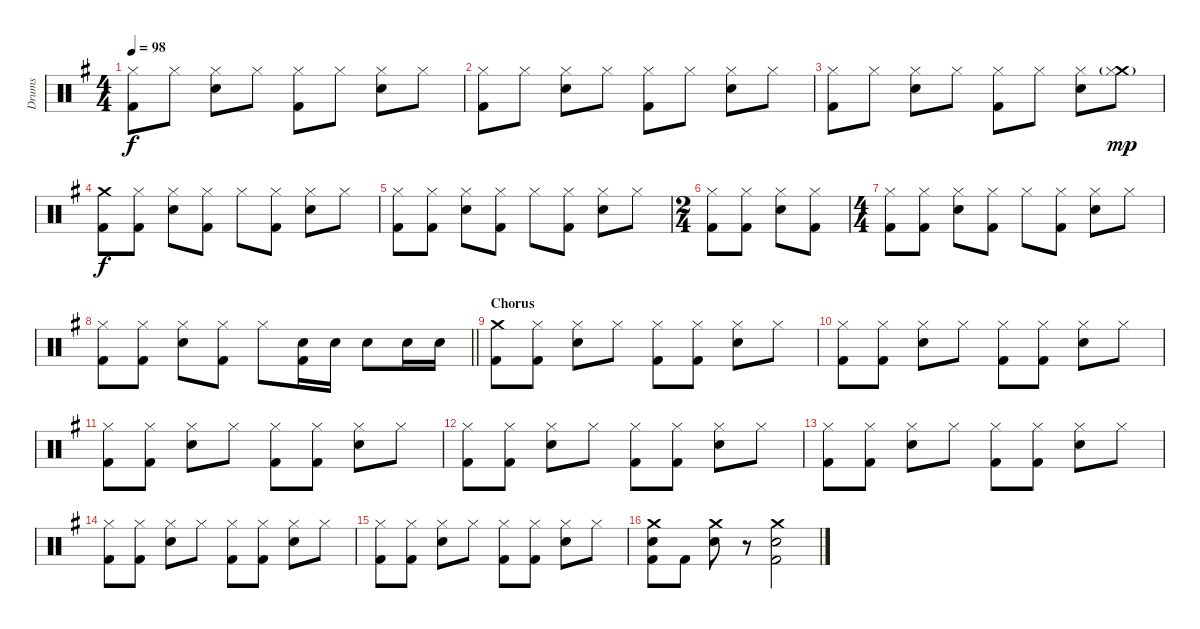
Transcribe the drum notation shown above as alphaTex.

\track ("Drums" "Drums") {instrument percussion}
\staff {score}
\articulation defaults
\ts (4 4)
\tempo 98
\clef neutral
\ks g
("Hi-Hat (closed)" "Kick (hit) 2").8{dy f} "Hi-Hat (closed)".8 ("Hi-Hat (closed)" "Electric Snare (hit)").8 "Hi-Hat (closed)".8 ("Hi-Hat (closed)" "Kick (hit) 2").8 "Hi-Hat (closed)".8 ("Hi-Hat (closed)" "Electric Snare (hit)").8 "Hi-Hat (closed)".8 |
("Hi-Hat (closed)" "Kick (hit) 2").8 "Hi-Hat (closed)".8 ("Hi-Hat (closed)" "Electric Snare (hit)").8 "Hi-Hat (closed)".8 ("Hi-Hat (closed)" "Kick (hit) 2").8 "Hi-Hat (closed)".8 ("Hi-Hat (closed)" "Electric Snare (hit)").8 "Hi-Hat (closed)".8 |
("Hi-Hat (closed)" "Kick (hit) 2").8 "Hi-Hat (closed)".8 ("Hi-Hat (closed)" "Electric Snare (hit)").8 "Hi-Hat (closed)".8 ("Hi-Hat (closed)" "Kick (hit) 2").8 "Hi-Hat (closed)".8 ("Hi-Hat (closed)" "Electric Snare (hit)").8 ("Crash medium (hit)"{g} "Hi-Hat (closed)").8{dy mp} |
("Crash medium (hit)" "Kick (hit) 2").8{dy f} ("Hi-Hat (closed)" "Kick (hit) 2").8 ("Hi-Hat (closed)" "Electric Snare (hit)").8 ("Hi-Hat (closed)" "Kick (hit) 2").8 "Hi-Hat (closed)".8 ("Hi-Hat (closed)" "Kick (hit) 2").8 ("Hi-Hat (closed)" "Electric Snare (hit)").8 "Hi-Hat (closed)".8 |
("Hi-Hat (closed)" "Kick (hit) 2").8 ("Hi-Hat (closed)" "Kick (hit) 2").8 ("Hi-Hat (closed)" "Electric Snare (hit)").8 ("Hi-Hat (closed)" "Kick (hit) 2").8 "Hi-Hat (closed)".8 ("Hi-Hat (closed)" "Kick (hit) 2").8 ("Hi-Hat (closed)" "Electric Snare (hit)").8 "Hi-Hat (closed)".8 |
\ts (2 4)
("Hi-Hat (closed)" "Kick (hit) 2").8 ("Hi-Hat (closed)" "Kick (hit) 2").8 ("Hi-Hat (closed)" "Electric Snare (hit)").8 ("Hi-Hat (closed)" "Kick (hit) 2").8 |
\ts (4 4)
("Hi-Hat (closed)" "Kick (hit) 2").8 ("Hi-Hat (closed)" "Kick (hit) 2").8 ("Hi-Hat (closed)" "Electric Snare (hit)").8 ("Hi-Hat (closed)" "Kick (hit) 2").8 "Hi-Hat (closed)".8 ("Hi-Hat (closed)" "Kick (hit) 2").8 ("Hi-Hat (closed)" "Electric Snare (hit)").8 "Hi-Hat (closed)".8 |
\barLineRight lightlight
("Hi-Hat (closed)" "Kick (hit) 2").8 ("Hi-Hat (closed)" "Kick (hit) 2").8 ("Hi-Hat (closed)" "Electric Snare (hit)").8 ("Hi-Hat (closed)" "Kick (hit) 2").8 "Hi-Hat (closed)".8 ("Electric Snare (hit)" "Kick (hit) 2").16 "Electric Snare (hit)".16 "Electric Snare (hit)".8 "Electric Snare (hit)".16 "Electric Snare (hit)".16 |
\section ("" "Chorus")
("Crash medium (hit)" "Kick (hit) 2").8 ("Hi-Hat (closed)" "Kick (hit) 2").8 ("Hi-Hat (closed)" "Electric Snare (hit)").8 "Hi-Hat (closed)".8 ("Hi-Hat (closed)" "Kick (hit) 2").8 ("Hi-Hat (closed)" "Kick (hit) 2").8 ("Hi-Hat (closed)" "Electric Snare (hit)").8 "Hi-Hat (closed)".8 |
("Hi-Hat (closed)" "Kick (hit) 2").8 ("Hi-Hat (closed)" "Kick (hit) 2").8 ("Hi-Hat (closed)" "Electric Snare (hit)").8 "Hi-Hat (closed)".8 ("Hi-Hat (closed)" "Kick (hit) 2").8 ("Hi-Hat (closed)" "Kick (hit) 2").8 ("Hi-Hat (closed)" "Electric Snare (hit)").8 "Hi-Hat (closed)".8 |
("Hi-Hat (closed)" "Kick (hit) 2").8 ("Hi-Hat (closed)" "Kick (hit) 2").8 ("Hi-Hat (closed)" "Electric Snare (hit)").8 "Hi-Hat (closed)".8 ("Hi-Hat (closed)" "Kick (hit) 2").8 ("Hi-Hat (closed)" "Kick (hit) 2").8 ("Hi-Hat (closed)" "Electric Snare (hit)").8 "Hi-Hat (closed)".8 |
("Hi-Hat (closed)" "Kick (hit) 2").8 ("Hi-Hat (closed)" "Kick (hit) 2").8 ("Hi-Hat (closed)" "Electric Snare (hit)").8 "Hi-Hat (closed)".8 ("Hi-Hat (closed)" "Kick (hit) 2").8 ("Hi-Hat (closed)" "Kick (hit) 2").8 ("Hi-Hat (closed)" "Electric Snare (hit)").8 "Hi-Hat (closed)".8 |
("Hi-Hat (closed)" "Kick (hit) 2").8 ("Hi-Hat (closed)" "Kick (hit) 2").8 ("Hi-Hat (closed)" "Electric Snare (hit)").8 "Hi-Hat (closed)".8 ("Hi-Hat (closed)" "Kick (hit) 2").8 ("Hi-Hat (closed)" "Kick (hit) 2").8 ("Hi-Hat (closed)" "Electric Snare (hit)").8 "Hi-Hat (closed)".8 |
("Hi-Hat (closed)" "Kick (hit) 2").8 ("Hi-Hat (closed)" "Kick (hit) 2").8 ("Hi-Hat (closed)" "Electric Snare (hit)").8 "Hi-Hat (closed)".8 ("Hi-Hat (closed)" "Kick (hit) 2").8 ("Hi-Hat (closed)" "Kick (hit) 2").8 ("Hi-Hat (closed)" "Electric Snare (hit)").8 "Hi-Hat (closed)".8 |
("Hi-Hat (closed)" "Kick (hit) 2").8 ("Hi-Hat (closed)" "Kick (hit) 2").8 ("Hi-Hat (closed)" "Electric Snare (hit)").8 "Hi-Hat (closed)".8 ("Hi-Hat (closed)" "Kick (hit) 2").8 ("Hi-Hat (closed)" "Kick (hit) 2").8 ("Hi-Hat (closed)" "Electric Snare (hit)").8 "Hi-Hat (closed)".8 |
("Crash medium (hit)" "Electric Snare (hit)" "Kick (hit) 2").8 "Kick (hit) 2".8 ("Crash medium (hit)" "Electric Snare (hit)").8 r.8 ("Crash medium (hit)" "Electric Snare (hit)" "Kick (hit) 2").2
